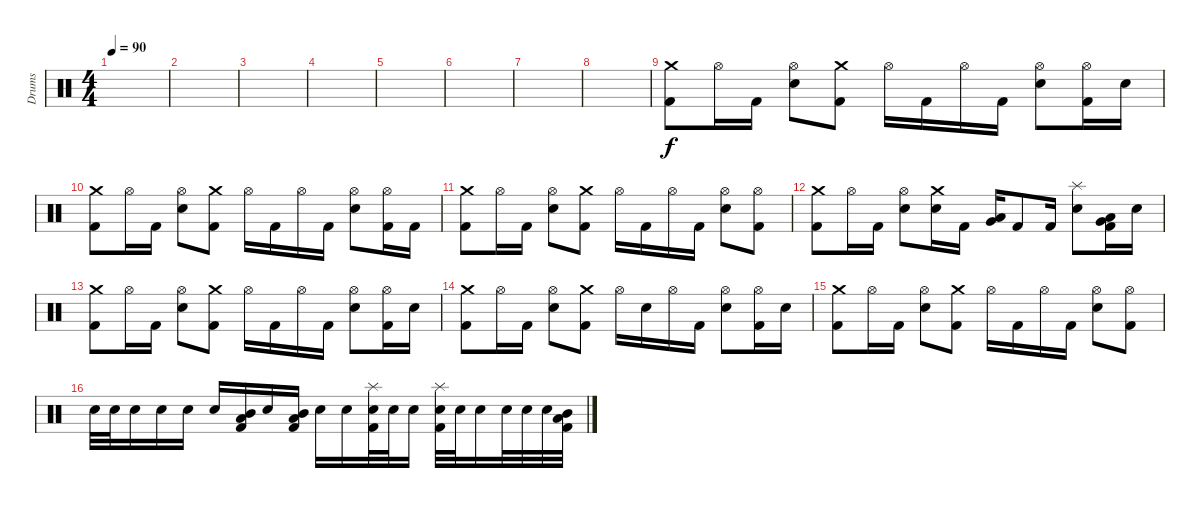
\track ("Drums" "Drums") {instrument percussion}
\staff {score}
\articulation defaults
\ts (4 4)
\tempo 90
\clef neutral
\ks c
|
|
|
|
|
|
|
|
("Crash medium (hit)" "Kick (hit) 2").8 "Hi-Hat (open)".16 "Kick (hit) 2".16 ("Hi-Hat (open)" "Snare (hit) 2").8 ("Crash medium (hit)" "Kick (hit) 2").8 "Hi-Hat (open)".16 "Kick (hit) 2".16 "Hi-Hat (open)".16 "Kick (hit) 2".16 ("Hi-Hat (open)" "Snare (hit) 2").8 ("Hi-Hat (open)" "Kick (hit) 2").16 "Snare (hit) 2".16 |
("Crash medium (hit)" "Kick (hit) 2").8 "Hi-Hat (open)".16 "Kick (hit) 2".16 ("Hi-Hat (open)" "Snare (hit) 2").8 ("Crash medium (hit)" "Kick (hit) 2").8 "Hi-Hat (open)".16 "Kick (hit) 2".16 "Hi-Hat (open)".16 "Kick (hit) 2".16 ("Hi-Hat (open)" "Snare (hit) 2").8 ("Hi-Hat (open)" "Kick (hit) 2").16 "Kick (hit) 2".16 |
("Crash medium (hit)" "Kick (hit) 2").8 "Hi-Hat (open)".16 "Kick (hit) 2".16 ("Hi-Hat (open)" "Snare (hit) 2").8 ("Crash medium (hit)" "Kick (hit) 2").8 "Hi-Hat (open)".16 "Kick (hit) 2".16 "Hi-Hat (open)".16 "Kick (hit) 2".16 ("Hi-Hat (open)" "Snare (hit) 2").8 ("Hi-Hat (open)" "Kick (hit) 2").8 |
("Crash medium (hit)" "Kick (hit) 2").8 "Hi-Hat (open)".16 "Kick (hit) 2".16 ("Hi-Hat (open)" "Snare (hit) 2").8 ("Crash medium (hit)" "Snare (hit) 2").16 "Kick (hit) 2".16 ("Low Tom (hit)" "Very Low Tom (hit)").16 "Kick (hit) 2".8 "Kick (hit) 2".16 ("Splash (hit)" "Snare (hit) 2").8 ("Low Tom (hit)" "Very Low Tom (hit)" "Kick (hit) 2").16 "Snare (hit) 2".16 |
("Crash medium (hit)" "Kick (hit) 2").8 "Hi-Hat (open)".16 "Kick (hit) 2".16 ("Hi-Hat (open)" "Snare (hit) 2").8 ("Crash medium (hit)" "Kick (hit) 2").8 "Hi-Hat (open)".16 "Kick (hit) 2".16 "Hi-Hat (open)".16 "Kick (hit) 2".16 ("Hi-Hat (open)" "Snare (hit) 2").8 ("Hi-Hat (open)" "Kick (hit) 2").16 "Snare (hit) 2".16 |
("Crash medium (hit)" "Kick (hit) 2").8 "Hi-Hat (open)".16 "Kick (hit) 2".16 ("Hi-Hat (open)" "Snare (hit) 2").8 ("Crash medium (hit)" "Kick (hit) 2").8 "Hi-Hat (open)".16 "Snare (hit) 2".16 "Hi-Hat (open)".16 "Kick (hit) 2".16 ("Hi-Hat (open)" "Snare (hit) 2").8 ("Hi-Hat (open)" "Kick (hit) 2").16 "Snare (hit) 2".16 |
("Crash medium (hit)" "Kick (hit) 2").8 "Hi-Hat (open)".16 "Kick (hit) 2".16 ("Hi-Hat (open)" "Snare (hit) 2").8 ("Crash medium (hit)" "Kick (hit) 2").8 "Hi-Hat (open)".16 "Kick (hit) 2".16 "Hi-Hat (open)".16 "Kick (hit) 2".16 ("Hi-Hat (open)" "Snare (hit) 2").8 ("Hi-Hat (open)" "Kick (hit) 2").8 |
"Snare (hit) 2".32 "Snare (hit) 2".32 "Snare (hit) 2".16 "Snare (hit) 2".16 "Snare (hit) 2".16 "Snare (hit) 2".16 ("Mid Tom (hit)" "Low Tom (hit)" "Kick (hit) 2").16 "Snare (hit) 2".16 ("Mid Tom (hit)" "Low Tom (hit)" "Kick (hit) 2").16 "Snare (hit) 2".16 "Snare (hit) 2".16 ("Splash (hit)" "Snare (hit) 2" "Kick (hit) 2").32 "Snare (hit) 2".32 "Snare (hit) 2".16 ("Splash (hit)" "Snare (hit) 2" "Kick (hit) 2").32 "Snare (hit) 2".32 "Snare (hit) 2".16 "Snare (hit) 2".32 "Snare (hit) 2".32 "Snare (hit) 2".32 ("Mid Tom (hit)" "Low Tom (hit)" "Kick (hit) 2").32
